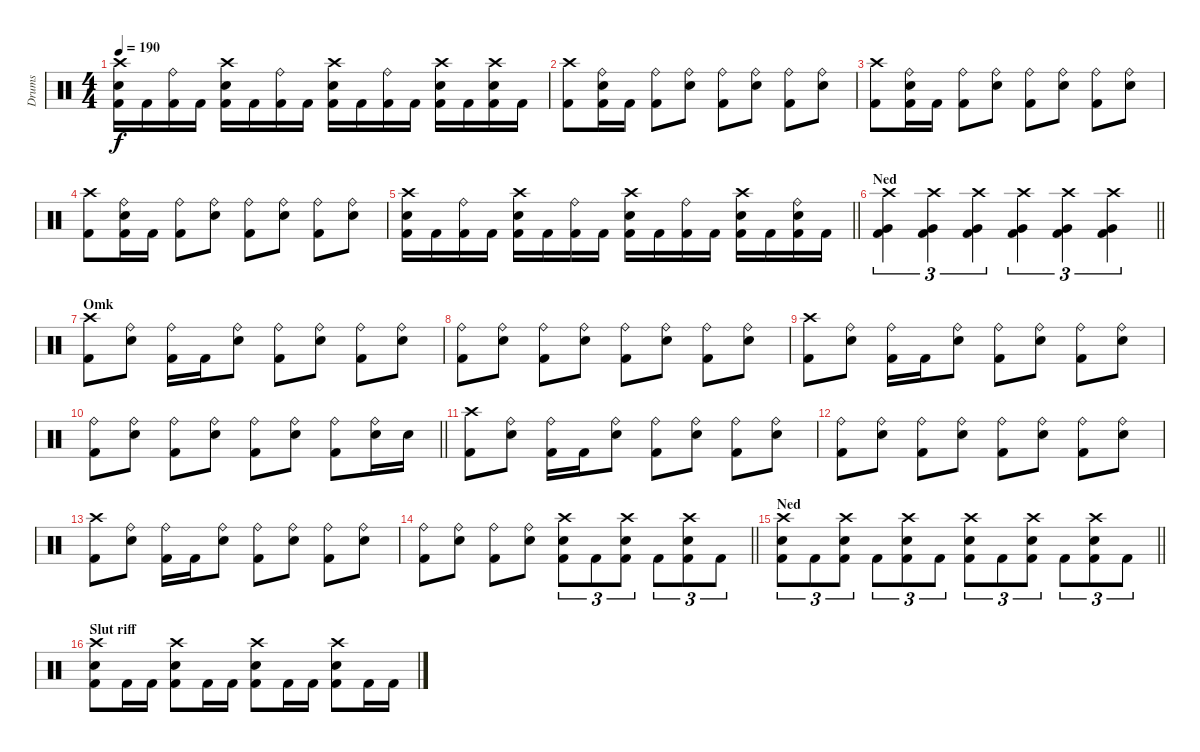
\track ("Drums" "Drums") {instrument percussion}
\staff {score}
\articulation defaults
\ts (4 4)
\tempo 190
\clef neutral
\ks c
("Crash high (hit)" "Snare (hit) 2" "Kick (hit) 2").16{dy f} "Kick (hit) 2".16 ("Ride (bell)" "Kick (hit) 2").16 "Kick (hit) 2".16 ("Crash high (hit)" "Snare (hit) 2" "Kick (hit) 2").16 "Kick (hit) 2".16 ("Ride (bell)" "Kick (hit) 2").16 "Kick (hit) 2".16 ("Crash high (hit)" "Snare (hit) 2" "Kick (hit) 2").16 "Kick (hit) 2".16 ("Ride (bell)" "Kick (hit) 2").16 "Kick (hit) 2".16 ("Crash high (hit)" "Snare (hit) 2" "Kick (hit) 2").16 "Kick (hit) 2".16 ("Crash high (hit)" "Snare (hit) 2" "Kick (hit) 2").16 "Kick (hit) 2".16 |
("Crash high (hit)" "Kick (hit) 2").8 ("Ride (bell)" "Snare (hit) 2" "Kick (hit) 2").16 "Kick (hit) 2".16 ("Ride (bell)" "Kick (hit) 2").8 ("Ride (bell)" "Snare (hit) 2").8 ("Ride (bell)" "Kick (hit) 2").8 ("Ride (bell)" "Snare (hit) 2").8 ("Ride (bell)" "Kick (hit) 2").8 ("Ride (bell)" "Snare (hit) 2").8 |
("Crash high (hit)" "Kick (hit) 2").8 ("Ride (bell)" "Snare (hit) 2" "Kick (hit) 2").16 "Kick (hit) 2".16 ("Ride (bell)" "Kick (hit) 2").8 ("Ride (bell)" "Snare (hit) 2").8 ("Ride (bell)" "Kick (hit) 2").8 ("Ride (bell)" "Snare (hit) 2").8 ("Ride (bell)" "Kick (hit) 2").8 ("Ride (bell)" "Snare (hit) 2").8 |
("Crash high (hit)" "Kick (hit) 2").8 ("Ride (bell)" "Snare (hit) 2" "Kick (hit) 2").16 "Kick (hit) 2".16 ("Ride (bell)" "Kick (hit) 2").8 ("Ride (bell)" "Snare (hit) 2").8 ("Ride (bell)" "Kick (hit) 2").8 ("Ride (bell)" "Snare (hit) 2").8 ("Ride (bell)" "Kick (hit) 2").8 ("Ride (bell)" "Snare (hit) 2").8 |
\barLineRight lightlight
("Crash high (hit)" "Snare (hit) 2" "Kick (hit) 2").16 "Kick (hit) 2".16 ("Ride (bell)" "Kick (hit) 2").16 "Kick (hit) 2".16 ("Crash high (hit)" "Snare (hit) 2" "Kick (hit) 2").16 "Kick (hit) 2".16 ("Ride (bell)" "Kick (hit) 2").16 "Kick (hit) 2".16 ("Crash high (hit)" "Snare (hit) 2" "Kick (hit) 2").16 "Kick (hit) 2".16 ("Ride (bell)" "Kick (hit) 2").16 "Kick (hit) 2".16 ("Crash high (hit)" "Snare (hit) 2" "Kick (hit) 2").16 "Kick (hit) 2".16 ("Ride (bell)" "Snare (hit) 2" "Kick (hit) 2").16 "Kick (hit) 2".16 |
\section ("" "Ned")
\barLineRight lightlight
("Crash high (hit)" "Very Low Tom (hit)" "Kick (hit) 2").4{tu (3 2)} ("Crash high (hit)" "Very Low Tom (hit)" "Kick (hit) 2").4{tu (3 2)} ("Crash high (hit)" "Very Low Tom (hit)" "Kick (hit) 2").4{tu (3 2)} ("Crash high (hit)" "Very Low Tom (hit)" "Kick (hit) 2").4{tu (3 2)} ("Crash high (hit)" "Very Low Tom (hit)" "Kick (hit) 2").4{tu (3 2)} ("Crash high (hit)" "Very Low Tom (hit)" "Kick (hit) 2").4{tu (3 2)} |
\section ("" "Omk")
("Crash high (hit)" "Kick (hit) 2").8 ("Ride (bell)" "Snare (hit) 2").8 ("Ride (bell)" "Kick (hit) 2").16 "Kick (hit) 2".16 ("Ride (bell)" "Snare (hit) 2").8 ("Ride (bell)" "Kick (hit) 2").8 ("Ride (bell)" "Snare (hit) 2").8 ("Ride (bell)" "Kick (hit) 2").8 ("Ride (bell)" "Snare (hit) 2").8 |
("Ride (bell)" "Kick (hit) 2").8 ("Ride (bell)" "Snare (hit) 2").8 ("Ride (bell)" "Kick (hit) 2").8 ("Ride (bell)" "Snare (hit) 2").8 ("Ride (bell)" "Kick (hit) 2").8 ("Ride (bell)" "Snare (hit) 2").8 ("Ride (bell)" "Kick (hit) 2").8 ("Ride (bell)" "Snare (hit) 2").8 |
("Crash high (hit)" "Kick (hit) 2").8 ("Ride (bell)" "Snare (hit) 2").8 ("Ride (bell)" "Kick (hit) 2").16 "Kick (hit) 2".16 ("Ride (bell)" "Snare (hit) 2").8 ("Ride (bell)" "Kick (hit) 2").8 ("Ride (bell)" "Snare (hit) 2").8 ("Ride (bell)" "Kick (hit) 2").8 ("Ride (bell)" "Snare (hit) 2").8 |
\barLineRight lightlight
("Ride (bell)" "Kick (hit) 2").8 ("Ride (bell)" "Snare (hit) 2").8 ("Ride (bell)" "Kick (hit) 2").8 ("Ride (bell)" "Snare (hit) 2").8 ("Ride (bell)" "Kick (hit) 2").8 ("Ride (bell)" "Snare (hit) 2").8 ("Ride (bell)" "Kick (hit) 2").8 ("Ride (bell)" "Snare (hit) 2").16 "Snare (hit) 2".16 |
("Crash high (hit)" "Kick (hit) 2").8 ("Ride (bell)" "Snare (hit) 2").8 ("Ride (bell)" "Kick (hit) 2").16 "Kick (hit) 2".16 ("Ride (bell)" "Snare (hit) 2").8 ("Ride (bell)" "Kick (hit) 2").8 ("Ride (bell)" "Snare (hit) 2").8 ("Ride (bell)" "Kick (hit) 2").8 ("Ride (bell)" "Snare (hit) 2").8 |
("Ride (bell)" "Kick (hit) 2").8 ("Ride (bell)" "Snare (hit) 2").8 ("Ride (bell)" "Kick (hit) 2").8 ("Ride (bell)" "Snare (hit) 2").8 ("Ride (bell)" "Kick (hit) 2").8 ("Ride (bell)" "Snare (hit) 2").8 ("Ride (bell)" "Kick (hit) 2").8 ("Ride (bell)" "Snare (hit) 2").8 |
("Crash high (hit)" "Kick (hit) 2").8 ("Ride (bell)" "Snare (hit) 2").8 ("Ride (bell)" "Kick (hit) 2").16 "Kick (hit) 2".16 ("Ride (bell)" "Snare (hit) 2").8 ("Ride (bell)" "Kick (hit) 2").8 ("Ride (bell)" "Snare (hit) 2").8 ("Ride (bell)" "Kick (hit) 2").8 ("Ride (bell)" "Snare (hit) 2").8 |
\barLineRight lightlight
("Ride (bell)" "Kick (hit) 2").8 ("Ride (bell)" "Snare (hit) 2").8 ("Ride (bell)" "Kick (hit) 2").8 ("Ride (bell)" "Snare (hit) 2").8 ("Crash high (hit)" "Snare (hit) 2" "Kick (hit) 2").8{tu (3 2)} "Kick (hit) 2".8{tu (3 2)} ("Crash high (hit)" "Snare (hit) 2" "Kick (hit) 2").8{tu (3 2)} "Kick (hit) 2".8{tu (3 2)} ("Crash high (hit)" "Snare (hit) 2" "Kick (hit) 2").8{tu (3 2)} "Kick (hit) 2".8{tu (3 2)} |
\section ("" "Ned")
\barLineRight lightlight
("Crash high (hit)" "Snare (hit) 2" "Kick (hit) 2").8{tu (3 2)} "Kick (hit) 2".8{tu (3 2)} ("Crash high (hit)" "Snare (hit) 2" "Kick (hit) 2").8{tu (3 2)} "Kick (hit) 2".8{tu (3 2)} ("Crash high (hit)" "Snare (hit) 2" "Kick (hit) 2").8{tu (3 2)} "Kick (hit) 2".8{tu (3 2)} ("Crash high (hit)" "Snare (hit) 2" "Kick (hit) 2").8{tu (3 2)} "Kick (hit) 2".8{tu (3 2)} ("Crash high (hit)" "Snare (hit) 2" "Kick (hit) 2").8{tu (3 2)} "Kick (hit) 2".8{tu (3 2)} ("Crash high (hit)" "Snare (hit) 2" "Kick (hit) 2").8{tu (3 2)} "Kick (hit) 2".8{tu (3 2)} |
\section ("" "Slut riff")
("Crash high (hit)" "Snare (hit) 2" "Kick (hit) 2").8 "Kick (hit) 2".16 "Kick (hit) 2".16 ("Crash high (hit)" "Snare (hit) 2" "Kick (hit) 2").8 "Kick (hit) 2".16 "Kick (hit) 2".16 ("Crash high (hit)" "Snare (hit) 2" "Kick (hit) 2").8 "Kick (hit) 2".16 "Kick (hit) 2".16 ("Crash high (hit)" "Snare (hit) 2" "Kick (hit) 2").8 "Kick (hit) 2".16 "Kick (hit) 2".16
